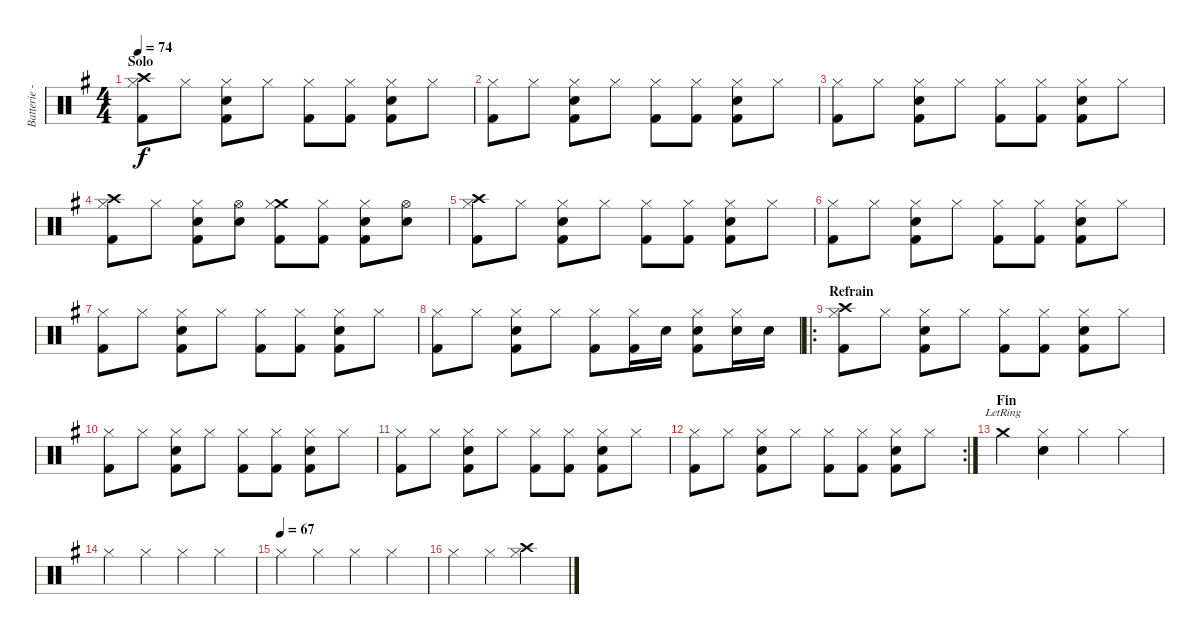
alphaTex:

\track ("Batterie - Romain" "Batterie -") {instrument percussion}
\staff {score}
\articulation defaults
\ts (4 4)
\section ("" "Solo")
\tempo 74
\clef neutral
\ks g
("Crash high (hit)" "Hi-Hat (closed)" "Kick (hit) 2").8{dy f} "Hi-Hat (closed)".8 ("Hi-Hat (closed)" "Snare (hit) 2" "Kick (hit) 2").8 "Hi-Hat (closed)".8 ("Hi-Hat (closed)" "Kick (hit) 2").8 ("Hi-Hat (closed)" "Kick (hit) 2").8 ("Hi-Hat (closed)" "Snare (hit) 2" "Kick (hit) 2").8 "Hi-Hat (closed)".8 |
("Hi-Hat (closed)" "Kick (hit) 2").8 "Hi-Hat (closed)".8 ("Hi-Hat (closed)" "Snare (hit) 2" "Kick (hit) 2").8 "Hi-Hat (closed)".8 ("Hi-Hat (closed)" "Kick (hit) 2").8 ("Hi-Hat (closed)" "Kick (hit) 2").8 ("Hi-Hat (closed)" "Snare (hit) 2" "Kick (hit) 2").8 "Hi-Hat (closed)".8 |
("Hi-Hat (closed)" "Kick (hit) 2").8 "Hi-Hat (closed)".8 ("Hi-Hat (closed)" "Snare (hit) 2" "Kick (hit) 2").8 "Hi-Hat (closed)".8 ("Hi-Hat (closed)" "Kick (hit) 2").8 ("Hi-Hat (closed)" "Kick (hit) 2").8 ("Hi-Hat (closed)" "Snare (hit) 2" "Kick (hit) 2").8 "Hi-Hat (closed)".8 |
("Crash high (hit)" "Hi-Hat (closed)" "Kick (hit) 2").8 "Hi-Hat (closed)".8 ("Hi-Hat (closed)" "Snare (hit) 2" "Kick (hit) 2").8 ("Hi-Hat (open)" "Snare (hit) 2").8 ("Crash medium (hit)" "Hi-Hat (closed)" "Kick (hit) 2").8 ("Hi-Hat (closed)" "Kick (hit) 2").8 ("Hi-Hat (closed)" "Snare (hit) 2" "Kick (hit) 2").8 ("Hi-Hat (open)" "Snare (hit) 2").8 |
("Crash high (hit)" "Hi-Hat (closed)" "Kick (hit) 2").8 "Hi-Hat (closed)".8 ("Hi-Hat (closed)" "Snare (hit) 2" "Kick (hit) 2").8 "Hi-Hat (closed)".8 ("Hi-Hat (closed)" "Kick (hit) 2").8 ("Hi-Hat (closed)" "Kick (hit) 2").8 ("Hi-Hat (closed)" "Snare (hit) 2" "Kick (hit) 2").8 "Hi-Hat (closed)".8 |
("Hi-Hat (closed)" "Kick (hit) 2").8 "Hi-Hat (closed)".8 ("Hi-Hat (closed)" "Snare (hit) 2" "Kick (hit) 2").8 "Hi-Hat (closed)".8 ("Hi-Hat (closed)" "Kick (hit) 2").8 ("Hi-Hat (closed)" "Kick (hit) 2").8 ("Hi-Hat (closed)" "Snare (hit) 2" "Kick (hit) 2").8 "Hi-Hat (closed)".8 |
("Hi-Hat (closed)" "Kick (hit) 2").8 "Hi-Hat (closed)".8 ("Hi-Hat (closed)" "Snare (hit) 2" "Kick (hit) 2").8 "Hi-Hat (closed)".8 ("Hi-Hat (closed)" "Kick (hit) 2").8 ("Hi-Hat (closed)" "Kick (hit) 2").8 ("Hi-Hat (closed)" "Snare (hit) 2" "Kick (hit) 2").8 "Hi-Hat (closed)".8 |
("Hi-Hat (closed)" "Kick (hit) 2").8 "Hi-Hat (closed)".8 ("Hi-Hat (closed)" "Snare (hit) 2" "Kick (hit) 2").8 "Hi-Hat (closed)".8 ("Hi-Hat (closed)" "Kick (hit) 2").8 ("Hi-Hat (closed)" "Kick (hit) 2").16 "Snare (hit) 2".16 ("Hi-Hat (closed)" "Snare (hit) 2" "Kick (hit) 2").8 ("Hi-Hat (closed)" "Snare (hit) 2").16 "Snare (hit) 2".16 |
\ro
\section ("" "Refrain")
("Crash high (hit)" "Hi-Hat (closed)" "Kick (hit) 2").8 "Hi-Hat (closed)".8 ("Hi-Hat (closed)" "Snare (hit) 2" "Kick (hit) 2").8 "Hi-Hat (closed)".8 ("Hi-Hat (closed)" "Kick (hit) 2").8 ("Hi-Hat (closed)" "Kick (hit) 2").8 ("Hi-Hat (closed)" "Snare (hit) 2" "Kick (hit) 2").8 "Hi-Hat (closed)".8 |
("Hi-Hat (closed)" "Kick (hit) 2").8 "Hi-Hat (closed)".8 ("Hi-Hat (closed)" "Snare (hit) 2" "Kick (hit) 2").8 "Hi-Hat (closed)".8 ("Hi-Hat (closed)" "Kick (hit) 2").8 ("Hi-Hat (closed)" "Kick (hit) 2").8 ("Hi-Hat (closed)" "Snare (hit) 2" "Kick (hit) 2").8 "Hi-Hat (closed)".8 |
("Hi-Hat (closed)" "Kick (hit) 2").8 "Hi-Hat (closed)".8 ("Hi-Hat (closed)" "Snare (hit) 2" "Kick (hit) 2").8 "Hi-Hat (closed)".8 ("Hi-Hat (closed)" "Kick (hit) 2").8 ("Hi-Hat (closed)" "Kick (hit) 2").8 ("Hi-Hat (closed)" "Snare (hit) 2" "Kick (hit) 2").8 "Hi-Hat (closed)".8 |
\rc 2
("Hi-Hat (closed)" "Kick (hit) 2").8 "Hi-Hat (closed)".8 ("Hi-Hat (closed)" "Snare (hit) 2" "Kick (hit) 2").8 "Hi-Hat (closed)".8 ("Hi-Hat (closed)" "Kick (hit) 2").8 ("Hi-Hat (closed)" "Kick (hit) 2").8 ("Hi-Hat (closed)" "Snare (hit) 2" "Kick (hit) 2").8 "Hi-Hat (closed)".8 |
\section ("" "Fin")
"Crash medium (hit)"{lr}.4 ("Hi-Hat (closed)" "Snare (hit) 2").4 "Hi-Hat (closed)".4 "Hi-Hat (closed)".4 |
"Hi-Hat (closed)".4 "Hi-Hat (closed)".4 "Hi-Hat (closed)".4 "Hi-Hat (closed)".4 |
\tempo (67)
"Hi-Hat (closed)".4 "Hi-Hat (closed)".4 "Hi-Hat (closed)".4 "Hi-Hat (closed)".4 |
"Hi-Hat (closed)".4 "Hi-Hat (closed)".4 ("Crash high (hit)" "Hi-Hat (closed)").2
